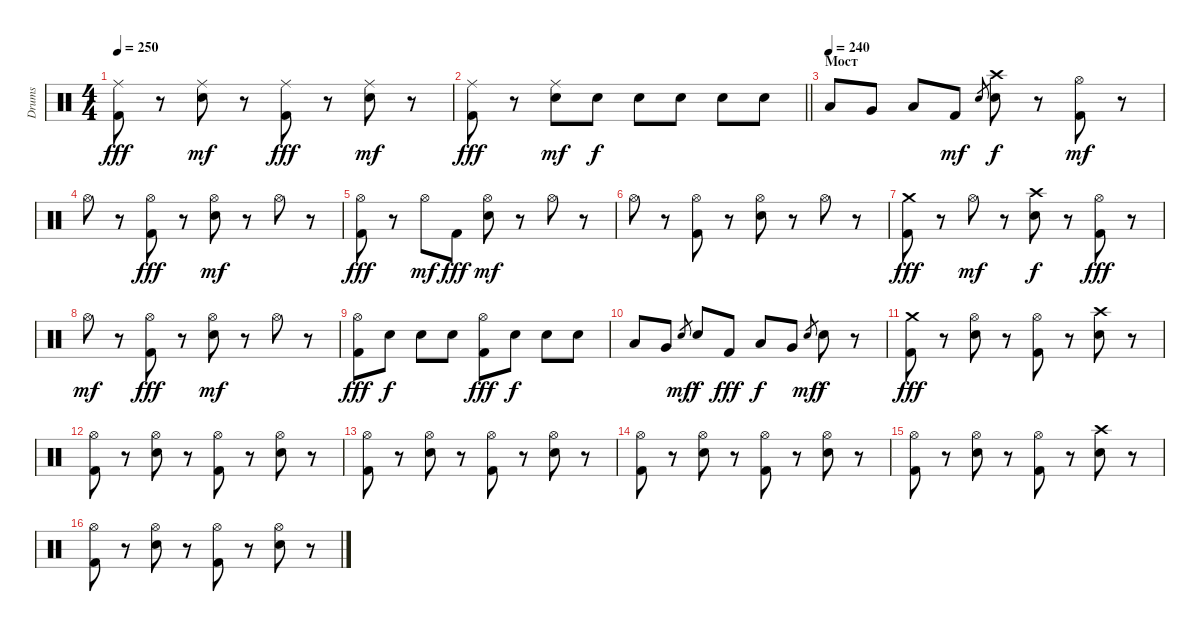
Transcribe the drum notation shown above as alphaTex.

\track ("Drums" "Drums") {instrument percussion}
\staff {score}
\articulation defaults
\ts (4 4)
\tempo 250
\clef neutral
\ks c
("Ride (middle)" "Kick (hit) 2").8{dy fff} r.8 ("Ride (middle)" "Electric Snare (hit)").8{dy mf} r.8 ("Ride (middle)" "Kick (hit) 2").8{dy fff} r.8 ("Ride (middle)" "Electric Snare (hit)").8{dy mf} r.8 |
\barLineRight lightlight
("Ride (middle)" "Kick (hit) 2").8{dy fff} r.8 ("Ride (middle)" "Electric Snare (hit)").8{dy mf} "Electric Snare (hit)".8{dy f} "Electric Snare (hit)".8 "Electric Snare (hit)".8 "Electric Snare (hit)".8 "Electric Snare (hit)".8 |
\section ("" "Мост")
\tempo (240)
"Low Tom (hit)".8 "Very Low Tom (hit)".8 "Low Floor Tom (hit)".8 "Kick (hit) 2".8{dy mf} "Electric Snare (hit)".8{gr} ("Crash high (hit)" "Electric Snare (hit)").8{dy f} r.8 ("Hi-Hat (open)" "Kick (hit) 2").8{dy mf} r.8 |
"Hi-Hat (open)".8 r.8 ("Hi-Hat (open)" "Kick (hit) 2").8{dy fff} r.8 ("Hi-Hat (open)" "Electric Snare (hit)").8{dy mf} r.8 "Hi-Hat (open)".8 r.8 |
("Hi-Hat (open)" "Kick (hit) 2").8{dy fff} r.8 "Hi-Hat (open)".8{dy mf} "Kick (hit) 2".8{dy fff} ("Hi-Hat (open)" "Electric Snare (hit)").8{dy mf} r.8 "Hi-Hat (open)".8 r.8 |
"Hi-Hat (open)".8 r.8 ("Hi-Hat (open)" "Kick (hit) 2").8 r.8 ("Hi-Hat (open)" "Electric Snare (hit)").8 r.8 "Hi-Hat (open)".8 r.8 |
("Crash medium (hit)" "Kick (hit) 2").8{dy fff} r.8 "Hi-Hat (open)".8{dy mf} r.8 ("Crash high (hit)" "Electric Snare (hit)").8{dy f} r.8 ("Hi-Hat (open)" "Kick (hit) 2").8{dy fff} r.8 |
"Hi-Hat (open)".8{dy mf} r.8 ("Hi-Hat (open)" "Kick (hit) 2").8{dy fff} r.8 ("Hi-Hat (open)" "Electric Snare (hit)").8{dy mf} r.8 "Hi-Hat (open)".8 r.8 |
("Hi-Hat (open)" "Kick (hit) 2").8{dy fff} "Electric Snare (hit)".8{dy f} "Electric Snare (hit)".8 "Electric Snare (hit)".8 ("Hi-Hat (open)" "Kick (hit) 2").8{dy fff} "Electric Snare (hit)".8{dy f} "Electric Snare (hit)".8 "Electric Snare (hit)".8 |
"Low Tom (hit)".8 "Very Low Tom (hit)".8 "Electric Snare (hit)".8{gr dy mf} "Electric Snare (hit)".8{dy f} "Kick (hit) 2".8{dy fff} "Low Tom (hit)".8{dy f} "Very Low Tom (hit)".8 "Electric Snare (hit)".8{gr dy mf} "Electric Snare (hit)".8{dy f} r.8 |
("Crash medium (hit)" "Kick (hit) 2").8{dy fff} r.8 ("Hi-Hat (open)" "Electric Snare (hit)").8 r.8 ("Hi-Hat (open)" "Kick (hit) 2").8 r.8 ("Crash high (hit)" "Electric Snare (hit)").8 r.8 |
("Hi-Hat (open)" "Kick (hit) 2").8 r.8 ("Hi-Hat (open)" "Electric Snare (hit)").8 r.8 ("Hi-Hat (open)" "Kick (hit) 2").8 r.8 ("Hi-Hat (open)" "Electric Snare (hit)").8 r.8 |
("Hi-Hat (open)" "Kick (hit) 2").8 r.8 ("Hi-Hat (open)" "Electric Snare (hit)").8 r.8 ("Hi-Hat (open)" "Kick (hit) 2").8 r.8 ("Hi-Hat (open)" "Electric Snare (hit)").8 r.8 |
("Hi-Hat (open)" "Kick (hit) 2").8 r.8 ("Hi-Hat (open)" "Electric Snare (hit)").8 r.8 ("Hi-Hat (open)" "Kick (hit) 2").8 r.8 ("Hi-Hat (open)" "Electric Snare (hit)").8 r.8 |
("Hi-Hat (open)" "Kick (hit) 2").8 r.8 ("Hi-Hat (open)" "Electric Snare (hit)").8 r.8 ("Hi-Hat (open)" "Kick (hit) 2").8 r.8 ("Crash high (hit)" "Electric Snare (hit)").8 r.8 |
("Hi-Hat (open)" "Kick (hit) 2").8 r.8 ("Hi-Hat (open)" "Electric Snare (hit)").8 r.8 ("Hi-Hat (open)" "Kick (hit) 2").8 r.8 ("Hi-Hat (open)" "Electric Snare (hit)").8 r.8
